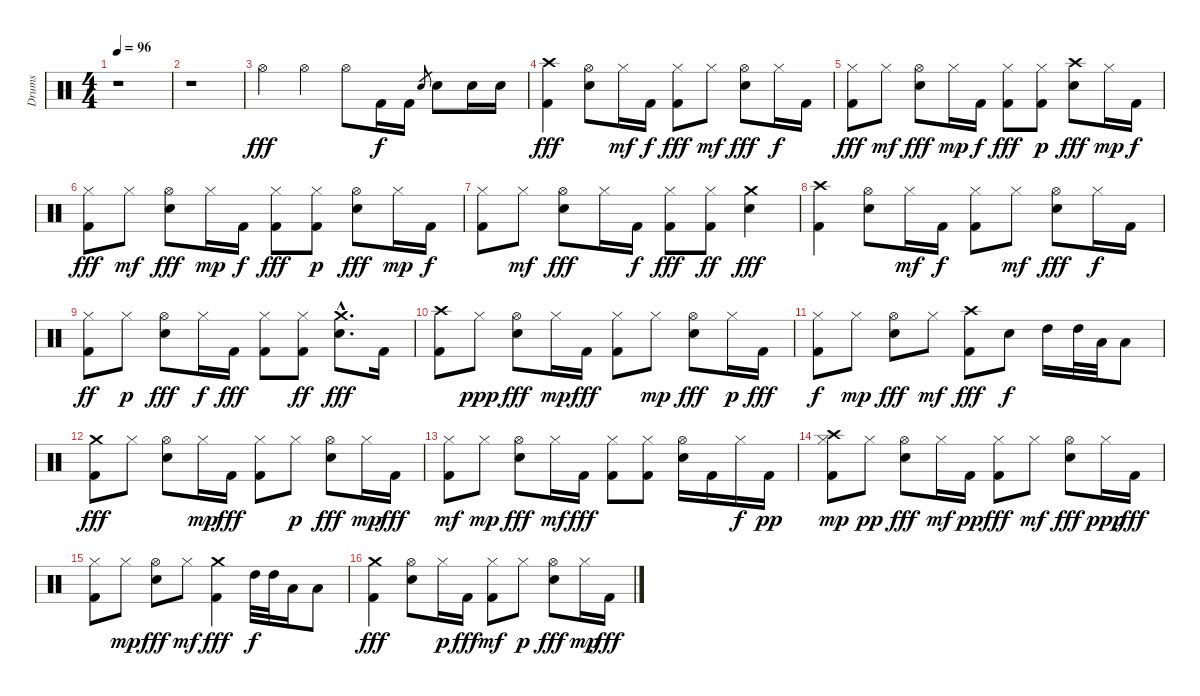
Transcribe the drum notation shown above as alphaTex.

\track ("Drums" "Drums") {instrument percussion}
\staff {score}
\articulation defaults
\ts (4 4)
\tempo 96
\clef neutral
\ks c
r.1{dy fff} |
r.1 |
"Hi-Hat (open)".4 "Hi-Hat (open)".4 "Hi-Hat (open)".8 "Kick (hit) 2".16{dy f} "Kick (hit) 2".16 "Snare (hit) 2".8{gr} "Snare (hit) 2".8 "Snare (hit) 2".16 "Snare (hit) 2".16 |
("Crash high (hit)" "Kick (hit) 2").4{dy fff} ("Hi-Hat (open)" "Snare (hit) 2").8 "Hi-Hat (closed)".16{dy mf} "Kick (hit) 2".16{dy f} ("Hi-Hat (closed)" "Kick (hit) 2").8{dy fff} "Hi-Hat (closed)".8{dy mf} ("Hi-Hat (open)" "Snare (hit) 2").8{dy fff} "Hi-Hat (closed)".16{dy f} "Kick (hit) 2".16 |
("Hi-Hat (closed)" "Kick (hit) 2").8{dy fff} "Hi-Hat (closed)".8{dy mf} ("Hi-Hat (open)" "Snare (hit) 2").8{dy fff} "Hi-Hat (closed)".16{dy mp} "Kick (hit) 2".16{dy f} ("Hi-Hat (closed)" "Kick (hit) 2").8{dy fff} ("Hi-Hat (closed)" "Kick (hit) 2").8{dy p} ("Crash high (hit)" "Snare (hit) 2").8{dy fff} "Hi-Hat (closed)".16{dy mp} "Kick (hit) 2".16{dy f} |
("Hi-Hat (closed)" "Kick (hit) 2").8{dy fff} "Hi-Hat (closed)".8{dy mf} ("Hi-Hat (open)" "Snare (hit) 2").8{dy fff} "Hi-Hat (closed)".16{dy mp} "Kick (hit) 2".16{dy f} ("Hi-Hat (closed)" "Kick (hit) 2").8{dy fff} ("Hi-Hat (closed)" "Kick (hit) 2").8{dy p} ("Hi-Hat (open)" "Snare (hit) 2").8{dy fff} "Hi-Hat (closed)".16{dy mp} "Kick (hit) 2".16{dy f} |
("Hi-Hat (closed)" "Kick (hit) 2").8 "Hi-Hat (closed)".8{dy mf} ("Hi-Hat (open)" "Snare (hit) 2").8{dy fff} "Hi-Hat (closed)".16 "Kick (hit) 2".16{dy f} ("Hi-Hat (closed)" "Kick (hit) 2").8{dy fff} ("Hi-Hat (closed)" "Kick (hit) 2").8{dy ff} ("Crash medium (hit)" "Snare (hit) 2").4{dy fff} |
("Crash high (hit)" "Kick (hit) 2").4 ("Hi-Hat (open)" "Snare (hit) 2").8 "Hi-Hat (closed)".16{dy mf} "Kick (hit) 2".16{dy f} ("Hi-Hat (closed)" "Kick (hit) 2").8 "Hi-Hat (closed)".8{dy mf} ("Hi-Hat (open)" "Snare (hit) 2").8{dy fff} "Hi-Hat (closed)".16{dy f} "Kick (hit) 2".16 |
("Kick (hit) 2" "Hi-Hat (closed)").8{dy ff} "Hi-Hat (closed)".8{dy p} ("Hi-Hat (open)" "Snare (hit) 2").8{dy fff} "Hi-Hat (closed)".16{dy f} "Kick (hit) 2".16{dy fff} ("Hi-Hat (closed)" "Kick (hit) 2").8 ("Kick (hit) 2" "Hi-Hat (closed)").8{dy ff} ("Snare (hit) 2"{hac} "Crash medium (hit)"{hac}).8{d dy fff} "Kick (hit) 2".16 |
("Kick (hit) 2" "Crash high (hit)").8 "Hi-Hat (closed)".8{dy ppp} ("Snare (hit) 2" "Hi-Hat (open)").8{dy fff} "Hi-Hat (closed)".16{dy mp} "Kick (hit) 2".16{dy fff} ("Kick (hit) 2" "Hi-Hat (closed)").8 "Hi-Hat (closed)".8{dy mp} ("Snare (hit) 2" "Hi-Hat (open)").8{dy fff} "Hi-Hat (closed)".16{dy p} "Kick (hit) 2".16{dy fff} |
("Hi-Hat (closed)" "Kick (hit) 2").8{dy f} "Hi-Hat (closed)".8{dy mp} ("Hi-Hat (open)" "Snare (hit) 2").8{dy fff} "Hi-Hat (closed)".8{dy mf} ("Crash high (hit)" "Kick (hit) 2").8{dy fff} "Snare (hit) 2".8{dy f} "High Tom (hit)".16 "High Tom (hit)".32 "Low Tom (hit)".32 "Low Tom (hit)".8 |
("Crash medium (hit)" "Kick (hit) 2").8{dy fff} "Hi-Hat (closed)".8 ("Hi-Hat (open)" "Snare (hit) 2").8 "Hi-Hat (closed)".16{dy mp} "Kick (hit) 2".16{dy fff} ("Hi-Hat (closed)" "Kick (hit) 2").8 "Hi-Hat (closed)".8{dy p} ("Snare (hit) 2" "Hi-Hat (open)").8{dy fff} "Hi-Hat (closed)".16{dy mp} "Kick (hit) 2".16{dy fff} |
("Kick (hit) 2" "Hi-Hat (closed)").8{dy mf} "Hi-Hat (closed)".8{dy mp} ("Snare (hit) 2" "Hi-Hat (open)").8{dy fff} "Hi-Hat (closed)".16{dy mf} "Kick (hit) 2".16{dy fff} ("Kick (hit) 2" "Hi-Hat (closed)").8 ("Hi-Hat (closed)" "Kick (hit) 2").8 ("Snare (hit) 2" "Hi-Hat (open)").16 "Kick (hit) 2".16 "Hi-Hat (closed)".16{dy f} "Kick (hit) 2".16{dy pp} |
("Crash high (hit)" "Kick (hit) 2" "Hi-Hat (closed)").8{dy mp} "Hi-Hat (closed)".8{dy pp} ("Hi-Hat (open)" "Snare (hit) 2").8{dy fff} "Hi-Hat (closed)".16{dy mf} "Kick (hit) 2".16{dy pp} ("Kick (hit) 2" "Hi-Hat (closed)").8{dy fff} "Hi-Hat (closed)".8{dy mf} ("Snare (hit) 2" "Hi-Hat (open)").8{dy fff} "Hi-Hat (closed)".16{dy ppp} "Kick (hit) 2".16{dy fff} |
("Hi-Hat (closed)" "Kick (hit) 2").8 "Hi-Hat (closed)".8{dy mp} ("Hi-Hat (open)" "Snare (hit) 2").8{dy fff} "Hi-Hat (closed)".8{dy mf} ("Crash medium (hit)" "Kick (hit) 2").4{dy fff} "High Tom (hit)".32{dy f} "High Tom (hit)".32 "Low Tom (hit)".16 "Low Tom (hit)".8 |
("Kick (hit) 2" "Crash medium (hit)").4{dy fff} ("Hi-Hat (open)" "Snare (hit) 2").8 "Hi-Hat (closed)".16{dy p} "Kick (hit) 2".16{dy fff} ("Kick (hit) 2" "Hi-Hat (closed)").8{dy mf} "Hi-Hat (closed)".8{dy p} ("Snare (hit) 2" "Hi-Hat (open)").8{dy fff} "Hi-Hat (closed)".16{dy mp} "Kick (hit) 2".16{dy fff}
